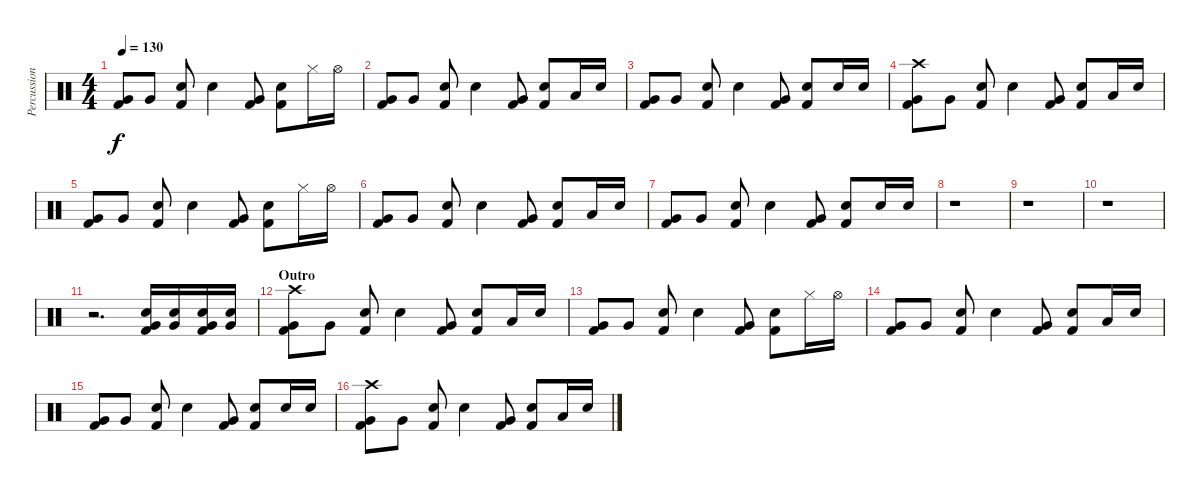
\track ("Percussion" "Percussion") {instrument percussion}
\staff {score}
\articulation defaults
\ts (4 4)
\tempo 130
\clef neutral
\ks c
("Very Low Tom (hit)" "Kick (hit) 2").8{dy f} "Very Low Tom (hit)".8 ("Electric Snare (hit)" "Kick (hit) 2").8 "Electric Snare (hit)".4 ("Very Low Tom (hit)" "Kick (hit) 2").8 ("Electric Snare (hit)" "Kick (hit) 2").8 "Hi-Hat (closed)".16 "Hi-Hat (open)".16 |
("Very Low Tom (hit)" "Kick (hit) 2").8 "Very Low Tom (hit)".8 ("Electric Snare (hit)" "Kick (hit) 2").8 "Electric Snare (hit)".4 ("Very Low Tom (hit)" "Kick (hit) 2").8 ("Electric Snare (hit)" "Kick (hit) 2").8 "Low Floor Tom (hit)".16 "Electric Snare (hit)".16 |
("Very Low Tom (hit)" "Kick (hit) 2").8 "Very Low Tom (hit)".8 ("Electric Snare (hit)" "Kick (hit) 2").8 "Electric Snare (hit)".4 ("Very Low Tom (hit)" "Kick (hit) 2").8 ("Electric Snare (hit)" "Kick (hit) 2").8 "Electric Snare (hit)".16 "Electric Snare (hit)".16 |
("Crash high (hit)" "Very Low Tom (hit)" "Kick (hit) 2").8 "Very Low Tom (hit)".8 ("Electric Snare (hit)" "Kick (hit) 2").8 "Electric Snare (hit)".4 ("Very Low Tom (hit)" "Kick (hit) 2").8 ("Electric Snare (hit)" "Kick (hit) 2").8 "Low Floor Tom (hit)".16 "Electric Snare (hit)".16 |
("Very Low Tom (hit)" "Kick (hit) 2").8 "Very Low Tom (hit)".8 ("Electric Snare (hit)" "Kick (hit) 2").8 "Electric Snare (hit)".4 ("Very Low Tom (hit)" "Kick (hit) 2").8 ("Electric Snare (hit)" "Kick (hit) 2").8 "Hi-Hat (closed)".16 "Hi-Hat (open)".16 |
("Very Low Tom (hit)" "Kick (hit) 2").8 "Very Low Tom (hit)".8 ("Electric Snare (hit)" "Kick (hit) 2").8 "Electric Snare (hit)".4 ("Very Low Tom (hit)" "Kick (hit) 2").8 ("Electric Snare (hit)" "Kick (hit) 2").8 "Low Floor Tom (hit)".16 "Electric Snare (hit)".16 |
("Very Low Tom (hit)" "Kick (hit) 2").8 "Very Low Tom (hit)".8 ("Electric Snare (hit)" "Kick (hit) 2").8 "Electric Snare (hit)".4 ("Very Low Tom (hit)" "Kick (hit) 2").8 ("Electric Snare (hit)" "Kick (hit) 2").8 "Electric Snare (hit)".16 "Electric Snare (hit)".16 |
r.1 |
r.1 |
r.1 |
r.2{d} ("Very Low Tom (hit)" "Electric Snare (hit)" "Kick (hit) 2").16 ("Very Low Tom (hit)" "Electric Snare (hit)").16 ("Very Low Tom (hit)" "Electric Snare (hit)" "Kick (hit) 2").16 ("Very Low Tom (hit)" "Electric Snare (hit)").16 |
\section ("" "Outro")
("Crash high (hit)" "Very Low Tom (hit)" "Kick (hit) 2").8{volume 16} "Very Low Tom (hit)".8 ("Electric Snare (hit)" "Kick (hit) 2").8 "Electric Snare (hit)".4 ("Very Low Tom (hit)" "Kick (hit) 2").8 ("Electric Snare (hit)" "Kick (hit) 2").8 "Low Floor Tom (hit)".16 "Electric Snare (hit)".16 |
("Very Low Tom (hit)" "Kick (hit) 2").8 "Very Low Tom (hit)".8 ("Electric Snare (hit)" "Kick (hit) 2").8 "Electric Snare (hit)".4 ("Very Low Tom (hit)" "Kick (hit) 2").8 ("Electric Snare (hit)" "Kick (hit) 2").8 "Hi-Hat (closed)".16 "Hi-Hat (open)".16 |
("Very Low Tom (hit)" "Kick (hit) 2").8 "Very Low Tom (hit)".8 ("Electric Snare (hit)" "Kick (hit) 2").8 "Electric Snare (hit)".4 ("Very Low Tom (hit)" "Kick (hit) 2").8 ("Electric Snare (hit)" "Kick (hit) 2").8 "Low Floor Tom (hit)".16 "Electric Snare (hit)".16 |
("Very Low Tom (hit)" "Kick (hit) 2").8 "Very Low Tom (hit)".8 ("Electric Snare (hit)" "Kick (hit) 2").8 "Electric Snare (hit)".4 ("Very Low Tom (hit)" "Kick (hit) 2").8 ("Electric Snare (hit)" "Kick (hit) 2").8 "Electric Snare (hit)".16 "Electric Snare (hit)".16 |
("Crash high (hit)" "Very Low Tom (hit)" "Kick (hit) 2").8{volume 16} "Very Low Tom (hit)".8 ("Electric Snare (hit)" "Kick (hit) 2").8 "Electric Snare (hit)".4 ("Very Low Tom (hit)" "Kick (hit) 2").8 ("Electric Snare (hit)" "Kick (hit) 2").8 "Low Floor Tom (hit)".16 "Electric Snare (hit)".16
